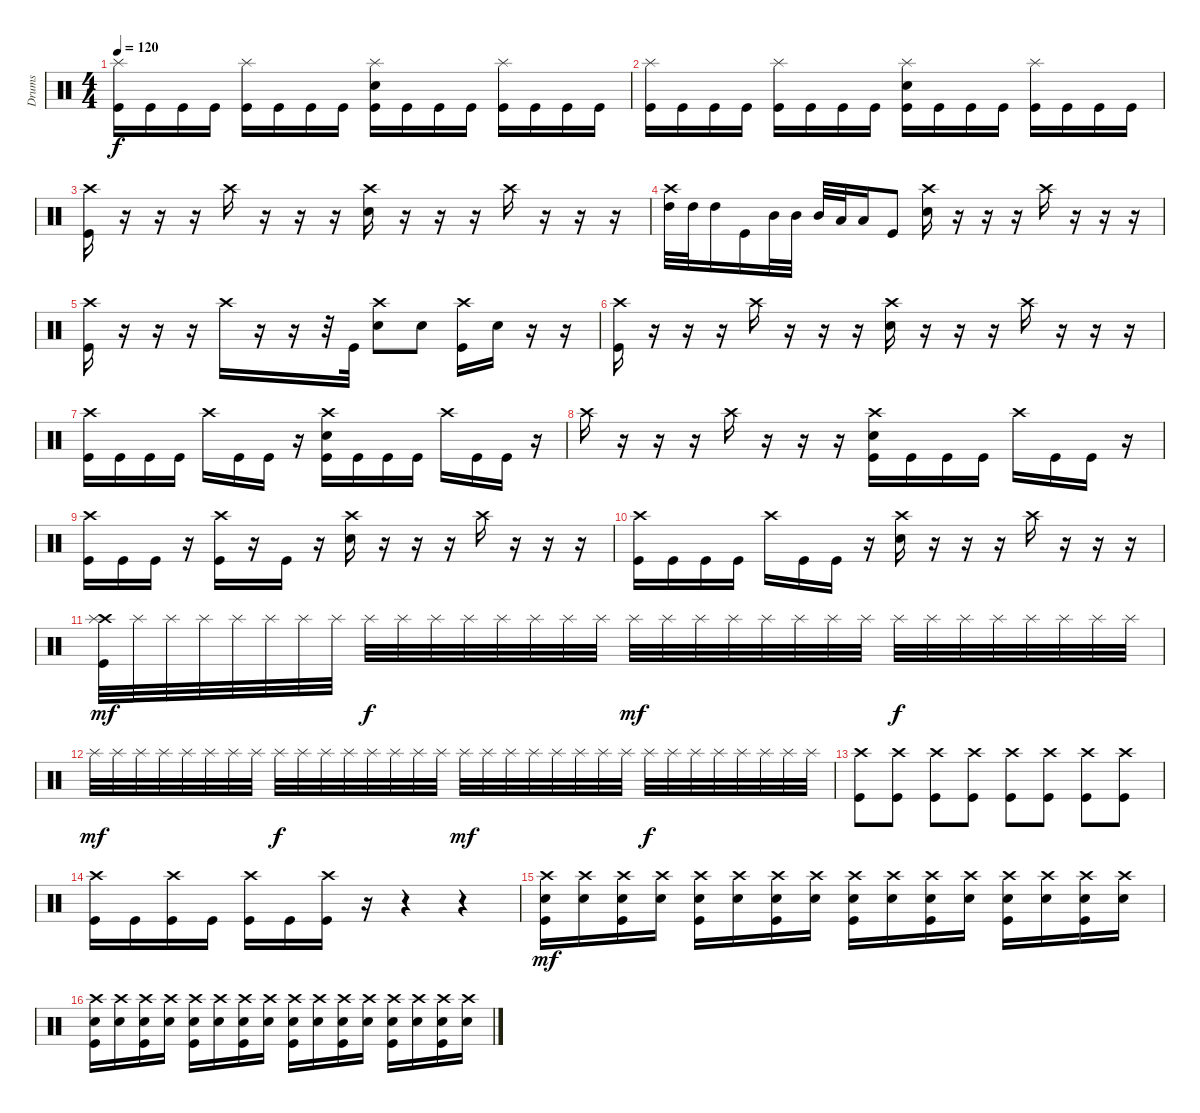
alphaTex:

\track ("Drums" "Drums") {instrument percussion}
\staff {score}
\articulation defaults
\ts (4 4)
\tempo 120
\clef neutral
\ks c
("Splash (hit)" "Kick (hit)").16{dy f} "Kick (hit)".16 "Kick (hit)".16 "Kick (hit)".16 ("Splash (hit)" "Kick (hit)").16 "Kick (hit)".16 "Kick (hit)".16 "Kick (hit)".16 ("Splash (hit)" "Snare (hit) 2" "Kick (hit)").16 "Kick (hit)".16 "Kick (hit)".16 "Kick (hit)".16 ("Splash (hit)" "Kick (hit)").16 "Kick (hit)".16 "Kick (hit)".16 "Kick (hit)".16 |
("Splash (hit)" "Kick (hit)").16 "Kick (hit)".16 "Kick (hit)".16 "Kick (hit)".16 ("Splash (hit)" "Kick (hit)").16 "Kick (hit)".16 "Kick (hit)".16 "Kick (hit)".16 ("Splash (hit)" "Snare (hit) 2" "Kick (hit)").16 "Kick (hit)".16 "Kick (hit)".16 "Kick (hit)".16 ("Splash (hit)" "Kick (hit)").16 "Kick (hit)".16 "Kick (hit)".16 "Kick (hit)".16 |
("Crash high (hit)" "Kick (hit)").16 r.16 r.16 r.16 "Crash high (hit)".16 r.16 r.16 r.16 ("Crash high (hit)" "Snare (hit) 2").16 r.16 r.16 r.16 "Crash high (hit)".16 r.16 r.16 r.16 |
("Crash high (hit)" "High Tom (hit)").32 "High Tom (hit)".32 "High Tom (hit)".16 "Kick (hit)".16 "Mid Tom (hit)".32 "Mid Tom (hit)".32 "Mid Tom (hit)".32 "Low Tom (hit)".32 "Low Tom (hit)".16 "Kick (hit)".8 ("Crash high (hit)" "Snare (hit) 2").16 r.16 r.16 r.16 "Crash high (hit)".16 r.16 r.16 r.16 |
("Crash high (hit)" "Kick (hit)").16 r.16 r.16 r.16 "Crash high (hit)".16 r.16 r.16 r.32 "Kick (hit)".32 ("Crash high (hit)" "Snare (hit) 2").8 "Snare (hit) 2".8 ("Crash high (hit)" "Kick (hit)").16 "Snare (hit) 2".16 r.16 r.16 |
("Crash high (hit)" "Kick (hit)").16 r.16 r.16 r.16 "Crash high (hit)".16 r.16 r.16 r.16 ("Crash high (hit)" "Snare (hit) 2").16 r.16 r.16 r.16 "Crash high (hit)".16 r.16 r.16 r.16 |
("Crash high (hit)" "Kick (hit)").16 "Kick (hit)".16 "Kick (hit)".16 "Kick (hit)".16 "Crash high (hit)".16 "Kick (hit)".16 "Kick (hit)".16 r.16 ("Crash high (hit)" "Snare (hit) 2" "Kick (hit)").16 "Kick (hit)".16 "Kick (hit)".16 "Kick (hit)".16 "Crash high (hit)".16 "Kick (hit)".16 "Kick (hit)".16 r.16 |
"Crash high (hit)".16 r.16 r.16 r.16 "Crash high (hit)".16 r.16 r.16 r.16 ("Crash high (hit)" "Snare (hit) 2" "Kick (hit)").16 "Kick (hit)".16 "Kick (hit)".16 "Kick (hit)".16 "Crash high (hit)".16 "Kick (hit)".16 "Kick (hit)".16 r.16 |
("Crash high (hit)" "Kick (hit)").16 "Kick (hit)".16 "Kick (hit)".16 r.16 ("Crash high (hit)" "Kick (hit)").16 r.16 "Kick (hit)".16 r.16 ("Crash high (hit)" "Snare (hit) 2").16 r.16 r.16 r.16 "Crash high (hit)".16 r.16 r.16 r.16 |
("Crash high (hit)" "Kick (hit)").16 "Kick (hit)".16 "Kick (hit)".16 "Kick (hit)".16 "Crash high (hit)".16 "Kick (hit)".16 "Kick (hit)".16 r.16 ("Crash high (hit)" "Snare (hit) 2").16 r.16 r.16 r.16 "Crash high (hit)".16 r.16 r.16 r.16 |
("Crash high (hit)" "Splash (hit)" "Kick (hit)").32{dy mf} "Splash (hit)".32 "Splash (hit)".32 "Splash (hit)".32 "Splash (hit)".32 "Splash (hit)".32 "Splash (hit)".32 "Splash (hit)".32 "Splash (hit)".32{dy f} "Splash (hit)".32 "Splash (hit)".32 "Splash (hit)".32 "Splash (hit)".32 "Splash (hit)".32 "Splash (hit)".32 "Splash (hit)".32 "Splash (hit)".32{dy mf} "Splash (hit)".32 "Splash (hit)".32 "Splash (hit)".32 "Splash (hit)".32 "Splash (hit)".32 "Splash (hit)".32 "Splash (hit)".32 "Splash (hit)".32{dy f} "Splash (hit)".32 "Splash (hit)".32 "Splash (hit)".32 "Splash (hit)".32 "Splash (hit)".32 "Splash (hit)".32 "Splash (hit)".32 |
"Splash (hit)".32{dy mf} "Splash (hit)".32 "Splash (hit)".32 "Splash (hit)".32 "Splash (hit)".32 "Splash (hit)".32 "Splash (hit)".32 "Splash (hit)".32 "Splash (hit)".32{dy f} "Splash (hit)".32 "Splash (hit)".32 "Splash (hit)".32 "Splash (hit)".32 "Splash (hit)".32 "Splash (hit)".32 "Splash (hit)".32 "Splash (hit)".32{dy mf} "Splash (hit)".32 "Splash (hit)".32 "Splash (hit)".32 "Splash (hit)".32 "Splash (hit)".32 "Splash (hit)".32 "Splash (hit)".32 "Splash (hit)".32{dy f} "Splash (hit)".32 "Splash (hit)".32 "Splash (hit)".32 "Splash (hit)".32 "Splash (hit)".32 "Splash (hit)".32 "Splash (hit)".32 |
("Crash high (hit)" "Kick (hit)").8 ("Crash high (hit)" "Kick (hit)").8 ("Crash high (hit)" "Kick (hit)").8 ("Crash high (hit)" "Kick (hit)").8 ("Crash high (hit)" "Kick (hit)").8 ("Crash high (hit)" "Kick (hit)").8 ("Crash high (hit)" "Kick (hit)").8 ("Crash high (hit)" "Kick (hit)").8 |
("Crash high (hit)" "Kick (hit)").16 "Kick (hit)".16 ("Crash high (hit)" "Kick (hit)").16 "Kick (hit)".16 ("Crash high (hit)" "Kick (hit)").16 "Kick (hit)".16 ("Crash high (hit)" "Kick (hit)").16 r.16 r.4 r.4 |
("Crash high (hit)" "Snare (hit) 2" "Kick (hit)").16{dy mf} ("Crash high (hit)" "Snare (hit) 2").16 ("Crash high (hit)" "Snare (hit) 2" "Kick (hit)").16 ("Crash high (hit)" "Snare (hit) 2").16 ("Crash high (hit)" "Snare (hit) 2" "Kick (hit)").16 ("Crash high (hit)" "Snare (hit) 2").16 ("Crash high (hit)" "Snare (hit) 2" "Kick (hit)").16 ("Crash high (hit)" "Snare (hit) 2").16 ("Crash high (hit)" "Snare (hit) 2" "Kick (hit)").16 ("Crash high (hit)" "Snare (hit) 2").16 ("Crash high (hit)" "Snare (hit) 2" "Kick (hit)").16 ("Crash high (hit)" "Snare (hit) 2").16 ("Crash high (hit)" "Snare (hit) 2" "Kick (hit)").16 ("Crash high (hit)" "Snare (hit) 2").16 ("Crash high (hit)" "Snare (hit) 2" "Kick (hit)").16 ("Crash high (hit)" "Snare (hit) 2").16 |
("Crash high (hit)" "Snare (hit) 2" "Kick (hit)").16 ("Crash high (hit)" "Snare (hit) 2").16 ("Crash high (hit)" "Snare (hit) 2" "Kick (hit)").16 ("Crash high (hit)" "Snare (hit) 2").16 ("Crash high (hit)" "Snare (hit) 2" "Kick (hit)").16 ("Crash high (hit)" "Snare (hit) 2").16 ("Crash high (hit)" "Snare (hit) 2" "Kick (hit)").16 ("Crash high (hit)" "Snare (hit) 2").16 ("Crash high (hit)" "Snare (hit) 2" "Kick (hit)").16 ("Crash high (hit)" "Snare (hit) 2").16 ("Crash high (hit)" "Snare (hit) 2" "Kick (hit)").16 ("Crash high (hit)" "Snare (hit) 2").16 ("Crash high (hit)" "Snare (hit) 2" "Kick (hit)").16 ("Crash high (hit)" "Snare (hit) 2").16 ("Crash high (hit)" "Snare (hit) 2" "Kick (hit)").16 ("Crash high (hit)" "Snare (hit) 2").16
